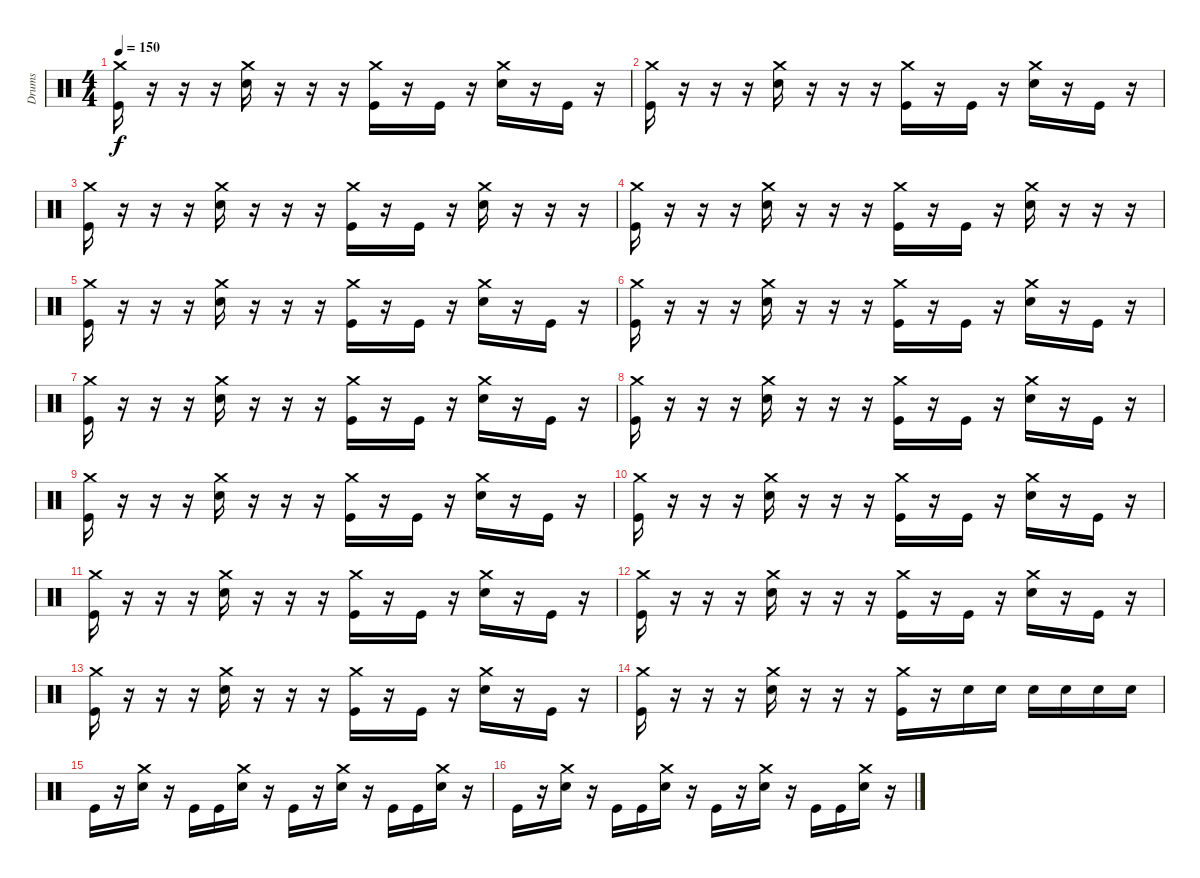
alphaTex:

\track ("Drums" "Drums") {instrument percussion}
\staff {score}
\articulation defaults
\ts (4 4)
\tempo 150
\clef neutral
\ks c
("Crash medium (hit)" "Kick (hit)").16{dy f} r.16 r.16 r.16 ("Crash medium (hit)" "Snare (hit) 2").16 r.16 r.16 r.16 ("Crash medium (hit)" "Kick (hit)").16 r.16 "Kick (hit)".16 r.16 ("Crash medium (hit)" "Snare (hit) 2").16 r.16 "Kick (hit)".16 r.16 |
("Crash medium (hit)" "Kick (hit)").16 r.16 r.16 r.16 ("Crash medium (hit)" "Snare (hit) 2").16 r.16 r.16 r.16 ("Crash medium (hit)" "Kick (hit)").16 r.16 "Kick (hit)".16 r.16 ("Crash medium (hit)" "Snare (hit) 2").16 r.16 "Kick (hit)".16 r.16 |
("Crash medium (hit)" "Kick (hit)").16 r.16 r.16 r.16 ("Crash medium (hit)" "Snare (hit) 2").16 r.16 r.16 r.16 ("Crash medium (hit)" "Kick (hit)").16 r.16 "Kick (hit)".16 r.16 ("Crash medium (hit)" "Snare (hit) 2").16 r.16 r.16 r.16 |
("Crash medium (hit)" "Kick (hit)").16 r.16 r.16 r.16 ("Crash medium (hit)" "Snare (hit) 2").16 r.16 r.16 r.16 ("Crash medium (hit)" "Kick (hit)").16 r.16 "Kick (hit)".16 r.16 ("Crash medium (hit)" "Snare (hit) 2").16 r.16 r.16 r.16 |
("Crash medium (hit)" "Kick (hit)").16 r.16 r.16 r.16 ("Crash medium (hit)" "Snare (hit) 2").16 r.16 r.16 r.16 ("Crash medium (hit)" "Kick (hit)").16 r.16 "Kick (hit)".16 r.16 ("Crash medium (hit)" "Snare (hit) 2").16 r.16 "Kick (hit)".16 r.16 |
("Crash medium (hit)" "Kick (hit)").16 r.16 r.16 r.16 ("Crash medium (hit)" "Snare (hit) 2").16 r.16 r.16 r.16 ("Crash medium (hit)" "Kick (hit)").16 r.16 "Kick (hit)".16 r.16 ("Crash medium (hit)" "Snare (hit) 2").16 r.16 "Kick (hit)".16 r.16 |
("Crash medium (hit)" "Kick (hit)").16 r.16 r.16 r.16 ("Crash medium (hit)" "Snare (hit) 2").16 r.16 r.16 r.16 ("Crash medium (hit)" "Kick (hit)").16 r.16 "Kick (hit)".16 r.16 ("Crash medium (hit)" "Snare (hit) 2").16 r.16 "Kick (hit)".16 r.16 |
("Crash medium (hit)" "Kick (hit)").16 r.16 r.16 r.16 ("Crash medium (hit)" "Snare (hit) 2").16 r.16 r.16 r.16 ("Crash medium (hit)" "Kick (hit)").16 r.16 "Kick (hit)".16 r.16 ("Crash medium (hit)" "Snare (hit) 2").16 r.16 "Kick (hit)".16 r.16 |
("Crash medium (hit)" "Kick (hit)").16 r.16 r.16 r.16 ("Crash medium (hit)" "Snare (hit) 2").16 r.16 r.16 r.16 ("Crash medium (hit)" "Kick (hit)").16 r.16 "Kick (hit)".16 r.16 ("Crash medium (hit)" "Snare (hit) 2").16 r.16 "Kick (hit)".16 r.16 |
("Crash medium (hit)" "Kick (hit)").16 r.16 r.16 r.16 ("Crash medium (hit)" "Snare (hit) 2").16 r.16 r.16 r.16 ("Crash medium (hit)" "Kick (hit)").16 r.16 "Kick (hit)".16 r.16 ("Crash medium (hit)" "Snare (hit) 2").16 r.16 "Kick (hit)".16 r.16 |
("Crash medium (hit)" "Kick (hit)").16 r.16 r.16 r.16 ("Crash medium (hit)" "Snare (hit) 2").16 r.16 r.16 r.16 ("Crash medium (hit)" "Kick (hit)").16 r.16 "Kick (hit)".16 r.16 ("Crash medium (hit)" "Snare (hit) 2").16 r.16 "Kick (hit)".16 r.16 |
("Crash medium (hit)" "Kick (hit)").16 r.16 r.16 r.16 ("Crash medium (hit)" "Snare (hit) 2").16 r.16 r.16 r.16 ("Crash medium (hit)" "Kick (hit)").16 r.16 "Kick (hit)".16 r.16 ("Crash medium (hit)" "Snare (hit) 2").16 r.16 "Kick (hit)".16 r.16 |
("Crash medium (hit)" "Kick (hit)").16 r.16 r.16 r.16 ("Crash medium (hit)" "Snare (hit) 2").16 r.16 r.16 r.16 ("Crash medium (hit)" "Kick (hit)").16 r.16 "Kick (hit)".16 r.16 ("Crash medium (hit)" "Snare (hit) 2").16 r.16 "Kick (hit)".16 r.16 |
("Crash medium (hit)" "Kick (hit)").16 r.16 r.16 r.16 ("Crash medium (hit)" "Snare (hit) 2").16 r.16 r.16 r.16 ("Crash medium (hit)" "Kick (hit)").16 r.16 "Snare (hit) 2".16 "Snare (hit) 2".16 "Snare (hit) 2".16 "Snare (hit) 2".16 "Snare (hit) 2".16 "Snare (hit) 2".16 |
"Kick (hit)".16 r.16 ("Crash medium (hit)" "Snare (hit) 2").16 r.16 "Kick (hit)".16 "Kick (hit)".16 ("Crash medium (hit)" "Snare (hit) 2").16 r.16 "Kick (hit)".16 r.16 ("Crash medium (hit)" "Snare (hit) 2").16 r.16 "Kick (hit)".16 "Kick (hit)".16 ("Crash medium (hit)" "Snare (hit) 2").16 r.16 |
"Kick (hit)".16 r.16 ("Crash medium (hit)" "Snare (hit) 2").16 r.16 "Kick (hit)".16 "Kick (hit)".16 ("Crash medium (hit)" "Snare (hit) 2").16 r.16 "Kick (hit)".16 r.16 ("Crash medium (hit)" "Snare (hit) 2").16 r.16 "Kick (hit)".16 "Kick (hit)".16 ("Crash medium (hit)" "Snare (hit) 2").16 r.16
